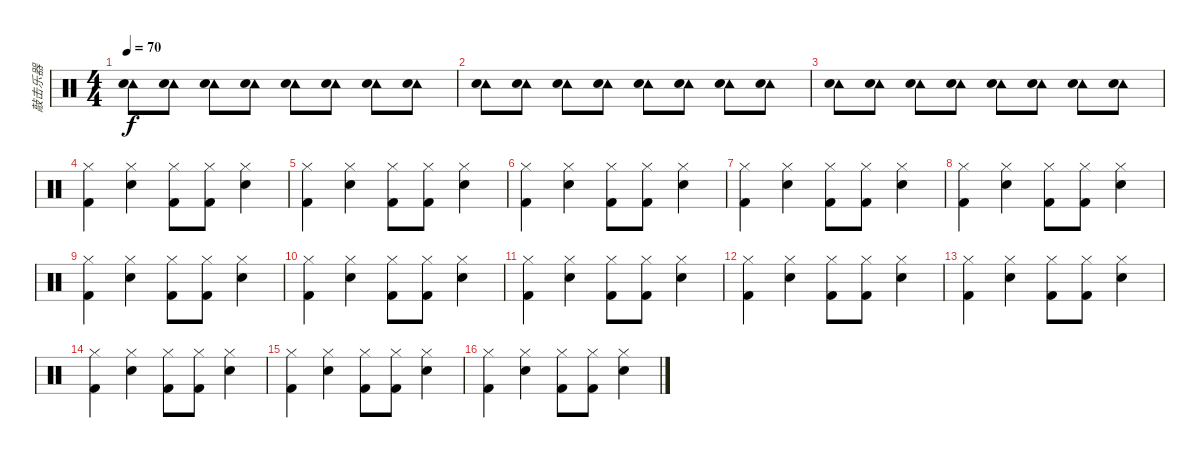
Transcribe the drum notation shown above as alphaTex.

\track ("敲击乐器" "敲击乐器") {instrument percussion}
\staff {score}
\articulation defaults
\ts (4 4)
\tempo 70
\clef neutral
\ks c
("Tambourine (hit)" "Snare (hit) 2").8{dy f} ("Tambourine (hit)" "Snare (hit) 2").8 ("Tambourine (hit)" "Snare (hit) 2").8 ("Tambourine (hit)" "Snare (hit) 2").8 ("Tambourine (hit)" "Snare (hit) 2").8 ("Tambourine (hit)" "Snare (hit) 2").8 ("Tambourine (hit)" "Snare (hit) 2").8 ("Tambourine (hit)" "Snare (hit) 2").8 |
("Tambourine (hit)" "Snare (hit) 2").8 ("Tambourine (hit)" "Snare (hit) 2").8 ("Tambourine (hit)" "Snare (hit) 2").8 ("Tambourine (hit)" "Snare (hit) 2").8 ("Tambourine (hit)" "Snare (hit) 2").8 ("Tambourine (hit)" "Snare (hit) 2").8 ("Tambourine (hit)" "Snare (hit) 2").8 ("Tambourine (hit)" "Snare (hit) 2").8 |
("Tambourine (hit)" "Snare (hit) 2").8 ("Tambourine (hit)" "Snare (hit) 2").8 ("Tambourine (hit)" "Snare (hit) 2").8 ("Tambourine (hit)" "Snare (hit) 2").8 ("Tambourine (hit)" "Snare (hit) 2").8 ("Tambourine (hit)" "Snare (hit) 2").8 ("Tambourine (hit)" "Snare (hit) 2").8 ("Tambourine (hit)" "Snare (hit) 2").8 |
("Hi-Hat (closed)" "Kick (hit) 2").4 ("Hi-Hat (closed)" "Snare (hit) 2").4 ("Hi-Hat (closed)" "Kick (hit) 2").8 ("Hi-Hat (closed)" "Kick (hit) 2").8 ("Hi-Hat (closed)" "Snare (hit) 2").4 |
("Hi-Hat (closed)" "Kick (hit) 2").4 ("Hi-Hat (closed)" "Snare (hit) 2").4 ("Hi-Hat (closed)" "Kick (hit) 2").8 ("Hi-Hat (closed)" "Kick (hit) 2").8 ("Hi-Hat (closed)" "Snare (hit) 2").4 |
("Hi-Hat (closed)" "Kick (hit) 2").4 ("Hi-Hat (closed)" "Snare (hit) 2").4 ("Hi-Hat (closed)" "Kick (hit) 2").8 ("Hi-Hat (closed)" "Kick (hit) 2").8 ("Hi-Hat (closed)" "Snare (hit) 2").4 |
("Hi-Hat (closed)" "Kick (hit) 2").4 ("Hi-Hat (closed)" "Snare (hit) 2").4 ("Hi-Hat (closed)" "Kick (hit) 2").8 ("Hi-Hat (closed)" "Kick (hit) 2").8 ("Hi-Hat (closed)" "Snare (hit) 2").4 |
("Hi-Hat (closed)" "Kick (hit) 2").4 ("Hi-Hat (closed)" "Snare (hit) 2").4 ("Hi-Hat (closed)" "Kick (hit) 2").8 ("Hi-Hat (closed)" "Kick (hit) 2").8 ("Hi-Hat (closed)" "Snare (hit) 2").4 |
("Hi-Hat (closed)" "Kick (hit) 2").4 ("Hi-Hat (closed)" "Snare (hit) 2").4 ("Hi-Hat (closed)" "Kick (hit) 2").8 ("Hi-Hat (closed)" "Kick (hit) 2").8 ("Hi-Hat (closed)" "Snare (hit) 2").4 |
("Hi-Hat (closed)" "Kick (hit) 2").4 ("Hi-Hat (closed)" "Snare (hit) 2").4 ("Hi-Hat (closed)" "Kick (hit) 2").8 ("Hi-Hat (closed)" "Kick (hit) 2").8 ("Hi-Hat (closed)" "Snare (hit) 2").4 |
("Hi-Hat (closed)" "Kick (hit) 2").4 ("Hi-Hat (closed)" "Snare (hit) 2").4 ("Hi-Hat (closed)" "Kick (hit) 2").8 ("Hi-Hat (closed)" "Kick (hit) 2").8 ("Hi-Hat (closed)" "Snare (hit) 2").4 |
("Hi-Hat (closed)" "Kick (hit) 2").4 ("Hi-Hat (closed)" "Snare (hit) 2").4 ("Hi-Hat (closed)" "Kick (hit) 2").8 ("Hi-Hat (closed)" "Kick (hit) 2").8 ("Hi-Hat (closed)" "Snare (hit) 2").4 |
("Hi-Hat (closed)" "Kick (hit) 2").4 ("Hi-Hat (closed)" "Snare (hit) 2").4 ("Hi-Hat (closed)" "Kick (hit) 2").8 ("Hi-Hat (closed)" "Kick (hit) 2").8 ("Hi-Hat (closed)" "Snare (hit) 2").4 |
("Hi-Hat (closed)" "Kick (hit) 2").4 ("Hi-Hat (closed)" "Snare (hit) 2").4 ("Hi-Hat (closed)" "Kick (hit) 2").8 ("Hi-Hat (closed)" "Kick (hit) 2").8 ("Hi-Hat (closed)" "Snare (hit) 2").4 |
("Hi-Hat (closed)" "Kick (hit) 2").4 ("Hi-Hat (closed)" "Snare (hit) 2").4 ("Hi-Hat (closed)" "Kick (hit) 2").8 ("Hi-Hat (closed)" "Kick (hit) 2").8 ("Hi-Hat (closed)" "Snare (hit) 2").4 |
("Hi-Hat (closed)" "Kick (hit) 2").4 ("Hi-Hat (closed)" "Snare (hit) 2").4 ("Hi-Hat (closed)" "Kick (hit) 2").8 ("Hi-Hat (closed)" "Kick (hit) 2").8 ("Hi-Hat (closed)" "Snare (hit) 2").4
